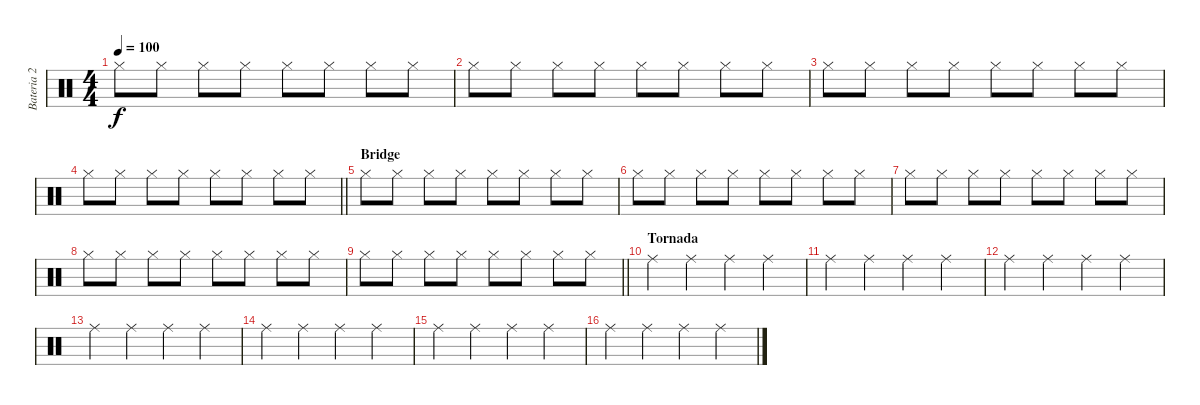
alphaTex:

\track ("Bateria 2" "Bateria 2") {instrument percussion}
\staff {score}
\articulation defaults
\ts (4 4)
\tempo 100
\clef neutral
\ks c "Hi-Hat (closed)".8{dy f} "Hi-Hat (closed)".8 "Hi-Hat (closed)".8 "Hi-Hat (closed)".8 "Hi-Hat (closed)".8 "Hi-Hat (closed)".8 "Hi-Hat (closed)".8 "Hi-Hat (closed)".8
|
"Hi-Hat (closed)".8 "Hi-Hat (closed)".8 "Hi-Hat (closed)".8 "Hi-Hat (closed)".8 "Hi-Hat (closed)".8 "Hi-Hat (closed)".8 "Hi-Hat (closed)".8 "Hi-Hat (closed)".8 |
"Hi-Hat (closed)".8 "Hi-Hat (closed)".8 "Hi-Hat (closed)".8 "Hi-Hat (closed)".8 "Hi-Hat (closed)".8 "Hi-Hat (closed)".8 "Hi-Hat (closed)".8 "Hi-Hat (closed)".8 |
\barLineRight lightlight "Hi-Hat (closed)".8 "Hi-Hat (closed)".8 "Hi-Hat (closed)".8 "Hi-Hat (closed)".8 "Hi-Hat (closed)".8 "Hi-Hat (closed)".8 "Hi-Hat (closed)".8 "Hi-Hat (closed)".8
|
\section ("" "Bridge")
"Hi-Hat (closed)".8 "Hi-Hat (closed)".8 "Hi-Hat (closed)".8 "Hi-Hat (closed)".8 "Hi-Hat (closed)".8 "Hi-Hat (closed)".8 "Hi-Hat (closed)".8 "Hi-Hat (closed)".8 |
"Hi-Hat (closed)".8 "Hi-Hat (closed)".8 "Hi-Hat (closed)".8 "Hi-Hat (closed)".8 "Hi-Hat (closed)".8 "Hi-Hat (closed)".8 "Hi-Hat (closed)".8 "Hi-Hat (closed)".8 |
"Hi-Hat (closed)".8 "Hi-Hat (closed)".8 "Hi-Hat (closed)".8 "Hi-Hat (closed)".8 "Hi-Hat (closed)".8 "Hi-Hat (closed)".8 "Hi-Hat (closed)".8 "Hi-Hat (closed)".8 |
"Hi-Hat (closed)".8 "Hi-Hat (closed)".8 "Hi-Hat (closed)".8 "Hi-Hat (closed)".8 "Hi-Hat (closed)".8 "Hi-Hat (closed)".8 "Hi-Hat (closed)".8 "Hi-Hat (closed)".8 |
\barLineRight lightlight "Hi-Hat (closed)".8 "Hi-Hat (closed)".8 "Hi-Hat (closed)".8 "Hi-Hat (closed)".8 "Hi-Hat (closed)".8 "Hi-Hat (closed)".8 "Hi-Hat (closed)".8 "Hi-Hat (closed)".8
|
\section ("" "Tornada")
"Ride (middle)".4 "Ride (middle)".4 "Ride (middle)".4 "Ride (middle)".4 |
"Ride (middle)".4 "Ride (middle)".4 "Ride (middle)".4 "Ride (middle)".4 |
"Ride (middle)".4 "Ride (middle)".4 "Ride (middle)".4 "Ride (middle)".4 |
"Ride (middle)".4 "Ride (middle)".4 "Ride (middle)".4 "Ride (middle)".4 |
"Ride (middle)".4 "Ride (middle)".4 "Ride (middle)".4 "Ride (middle)".4 |
"Ride (middle)".4 "Ride (middle)".4 "Ride (middle)".4 "Ride (middle)".4 |
"Ride (middle)".4 "Ride (middle)".4 "Ride (middle)".4 "Ride (middle)".4
